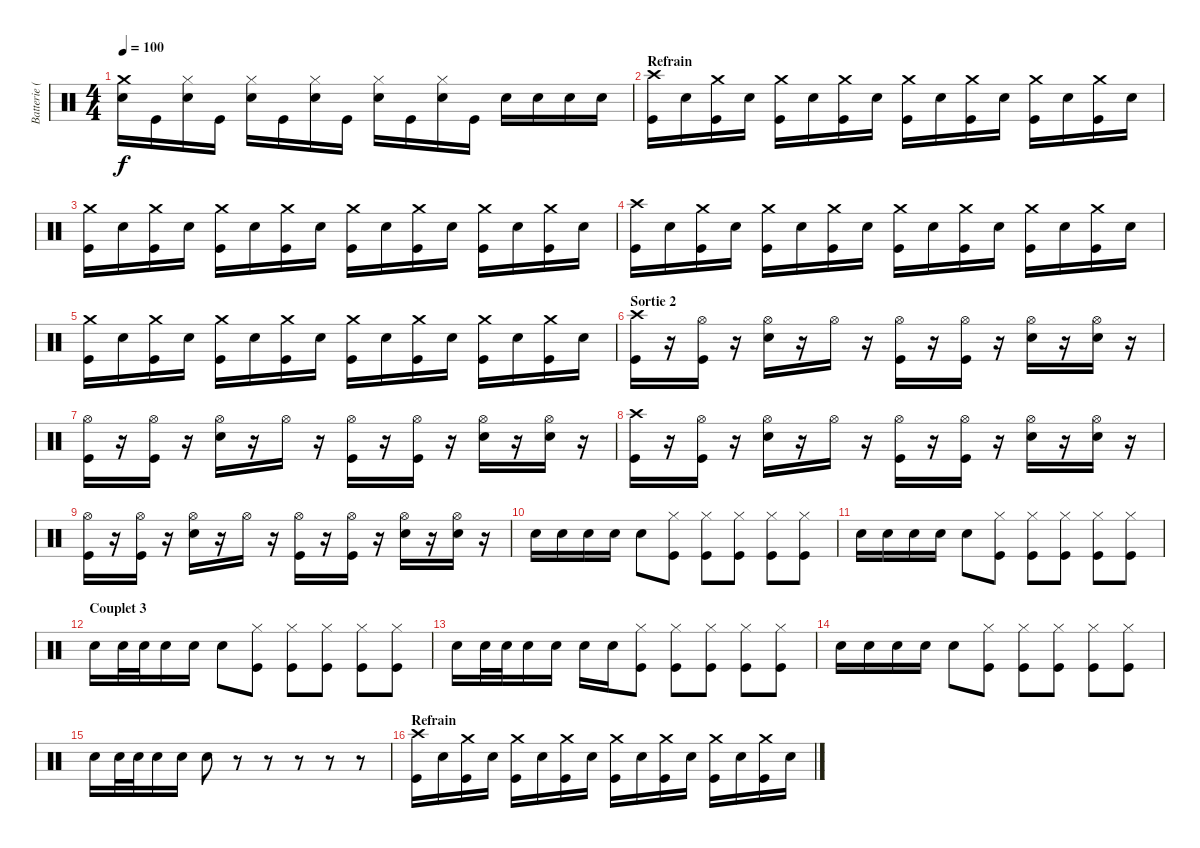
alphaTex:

\track ("Batterie (Julien)" "Batterie (") {instrument percussion}
\staff {score}
\articulation defaults
\ts (4 4)
\tempo 100
\clef neutral
\ks c
("Crash medium (hit)" "Electric Snare (hit)").16{dy f} "Kick (hit)".16 ("Hi-Hat (closed)" "Electric Snare (hit)").16 "Kick (hit)".16 ("Hi-Hat (closed)" "Electric Snare (hit)").16 "Kick (hit)".16 ("Hi-Hat (closed)" "Electric Snare (hit)").16 "Kick (hit)".16 ("Hi-Hat (closed)" "Electric Snare (hit)").16 "Kick (hit)".16 ("Hi-Hat (closed)" "Electric Snare (hit)").16 "Kick (hit)".16 "Electric Snare (hit)".16 "Electric Snare (hit)".16 "Electric Snare (hit)".16 "Electric Snare (hit)".16 |
\section ("" "Refrain")
("Crash high (hit)" "Kick (hit)").16 "Electric Snare (hit)".16 ("Crash medium (hit)" "Kick (hit)").16 "Electric Snare (hit)".16 ("Crash medium (hit)" "Kick (hit)").16 "Electric Snare (hit)".16 ("Crash medium (hit)" "Kick (hit)").16 "Electric Snare (hit)".16 ("Crash medium (hit)" "Kick (hit)").16 "Electric Snare (hit)".16 ("Crash medium (hit)" "Kick (hit)").16 "Electric Snare (hit)".16 ("Crash medium (hit)" "Kick (hit)").16 "Electric Snare (hit)".16 ("Crash medium (hit)" "Kick (hit)").16 "Electric Snare (hit)".16 |
("Crash medium (hit)" "Kick (hit)").16 "Electric Snare (hit)".16 ("Crash medium (hit)" "Kick (hit)").16 "Electric Snare (hit)".16 ("Crash medium (hit)" "Kick (hit)").16 "Electric Snare (hit)".16 ("Crash medium (hit)" "Kick (hit)").16 "Electric Snare (hit)".16 ("Crash medium (hit)" "Kick (hit)").16 "Electric Snare (hit)".16 ("Crash medium (hit)" "Kick (hit)").16 "Electric Snare (hit)".16 ("Crash medium (hit)" "Kick (hit)").16 "Electric Snare (hit)".16 ("Crash medium (hit)" "Kick (hit)").16 "Electric Snare (hit)".16 |
("Crash high (hit)" "Kick (hit)").16 "Electric Snare (hit)".16 ("Crash medium (hit)" "Kick (hit)").16 "Electric Snare (hit)".16 ("Crash medium (hit)" "Kick (hit)").16 "Electric Snare (hit)".16 ("Crash medium (hit)" "Kick (hit)").16 "Electric Snare (hit)".16 ("Crash medium (hit)" "Kick (hit)").16 "Electric Snare (hit)".16 ("Crash medium (hit)" "Kick (hit)").16 "Electric Snare (hit)".16 ("Crash medium (hit)" "Kick (hit)").16 "Electric Snare (hit)".16 ("Crash medium (hit)" "Kick (hit)").16 "Electric Snare (hit)".16 |
("Crash medium (hit)" "Kick (hit)").16 "Electric Snare (hit)".16 ("Crash medium (hit)" "Kick (hit)").16 "Electric Snare (hit)".16 ("Crash medium (hit)" "Kick (hit)").16 "Electric Snare (hit)".16 ("Crash medium (hit)" "Kick (hit)").16 "Electric Snare (hit)".16 ("Crash medium (hit)" "Kick (hit)").16 "Electric Snare (hit)".16 ("Crash medium (hit)" "Kick (hit)").16 "Electric Snare (hit)".16 ("Crash medium (hit)" "Kick (hit)").16 "Electric Snare (hit)".16 ("Crash medium (hit)" "Kick (hit)").16 "Electric Snare (hit)".16 |
\section ("" "Sortie 2")
("Crash high (hit)" "Kick (hit)").16 r.16 ("Hi-Hat (open)" "Kick (hit)").16 r.16 ("Hi-Hat (open)" "Electric Snare (hit)").16 r.16 "Hi-Hat (open)".16 r.16 ("Hi-Hat (open)" "Kick (hit)").16 r.16 ("Hi-Hat (open)" "Kick (hit)").16 r.16 ("Hi-Hat (open)" "Electric Snare (hit)").16 r.16 ("Hi-Hat (open)" "Electric Snare (hit)").16 r.16 |
("Hi-Hat (open)" "Kick (hit)").16 r.16 ("Hi-Hat (open)" "Kick (hit)").16 r.16 ("Hi-Hat (open)" "Electric Snare (hit)").16 r.16 "Hi-Hat (open)".16 r.16 ("Hi-Hat (open)" "Kick (hit)").16 r.16 ("Hi-Hat (open)" "Kick (hit)").16 r.16 ("Hi-Hat (open)" "Electric Snare (hit)").16 r.16 ("Hi-Hat (open)" "Electric Snare (hit)").16 r.16 |
("Crash high (hit)" "Kick (hit)").16 r.16 ("Hi-Hat (open)" "Kick (hit)").16 r.16 ("Hi-Hat (open)" "Electric Snare (hit)").16 r.16 "Hi-Hat (open)".16 r.16 ("Hi-Hat (open)" "Kick (hit)").16 r.16 ("Hi-Hat (open)" "Kick (hit)").16 r.16 ("Hi-Hat (open)" "Electric Snare (hit)").16 r.16 ("Hi-Hat (open)" "Electric Snare (hit)").16 r.16 |
("Hi-Hat (open)" "Kick (hit)").16 r.16 ("Hi-Hat (open)" "Kick (hit)").16 r.16 ("Hi-Hat (open)" "Electric Snare (hit)").16 r.16 "Hi-Hat (open)".16 r.16 ("Hi-Hat (open)" "Kick (hit)").16 r.16 ("Hi-Hat (open)" "Kick (hit)").16 r.16 ("Hi-Hat (open)" "Electric Snare (hit)").16 r.16 ("Hi-Hat (open)" "Electric Snare (hit)").16 r.16 |
"Electric Snare (hit)".16 "Electric Snare (hit)".16 "Electric Snare (hit)".16 "Electric Snare (hit)".16 "Electric Snare (hit)".8 ("Hi-Hat (closed)" "Kick (hit)").8 ("Hi-Hat (closed)" "Kick (hit)").8 ("Hi-Hat (closed)" "Kick (hit)").8 ("Hi-Hat (closed)" "Kick (hit)").8 ("Hi-Hat (closed)" "Kick (hit)").8 |
"Electric Snare (hit)".16 "Electric Snare (hit)".16 "Electric Snare (hit)".16 "Electric Snare (hit)".16 "Electric Snare (hit)".8 ("Hi-Hat (closed)" "Kick (hit)").8 ("Hi-Hat (closed)" "Kick (hit)").8 ("Hi-Hat (closed)" "Kick (hit)").8 ("Hi-Hat (closed)" "Kick (hit)").8 ("Hi-Hat (closed)" "Kick (hit)").8 |
\section ("" "Couplet 3")
"Electric Snare (hit)".16 "Electric Snare (hit)".32 "Electric Snare (hit)".32 "Electric Snare (hit)".16 "Electric Snare (hit)".16 "Electric Snare (hit)".8 ("Hi-Hat (closed)" "Kick (hit)").8 ("Hi-Hat (closed)" "Kick (hit)").8 ("Hi-Hat (closed)" "Kick (hit)").8 ("Hi-Hat (closed)" "Kick (hit)").8 ("Hi-Hat (closed)" "Kick (hit)").8 |
"Electric Snare (hit)".16 "Electric Snare (hit)".32 "Electric Snare (hit)".32 "Electric Snare (hit)".16 "Electric Snare (hit)".16 "Electric Snare (hit)".16 "Electric Snare (hit)".16 ("Hi-Hat (closed)" "Kick (hit)").8 ("Hi-Hat (closed)" "Kick (hit)").8 ("Hi-Hat (closed)" "Kick (hit)").8 ("Hi-Hat (closed)" "Kick (hit)").8 ("Hi-Hat (closed)" "Kick (hit)").8 |
"Electric Snare (hit)".16 "Electric Snare (hit)".16 "Electric Snare (hit)".16 "Electric Snare (hit)".16 "Electric Snare (hit)".8 ("Hi-Hat (closed)" "Kick (hit)").8 ("Hi-Hat (closed)" "Kick (hit)").8 ("Hi-Hat (closed)" "Kick (hit)").8 ("Hi-Hat (closed)" "Kick (hit)").8 ("Hi-Hat (closed)" "Kick (hit)").8 |
"Electric Snare (hit)".16 "Electric Snare (hit)".32 "Electric Snare (hit)".32 "Electric Snare (hit)".16 "Electric Snare (hit)".16 "Electric Snare (hit)".8 r.8 r.8 r.8 r.8 r.8 |
\section ("" "Refrain")
("Crash high (hit)" "Kick (hit)").16 "Electric Snare (hit)".16 ("Crash medium (hit)" "Kick (hit)").16 "Electric Snare (hit)".16 ("Crash medium (hit)" "Kick (hit)").16 "Electric Snare (hit)".16 ("Crash medium (hit)" "Kick (hit)").16 "Electric Snare (hit)".16 ("Crash medium (hit)" "Kick (hit)").16 "Electric Snare (hit)".16 ("Crash medium (hit)" "Kick (hit)").16 "Electric Snare (hit)".16 ("Crash medium (hit)" "Kick (hit)").16 "Electric Snare (hit)".16 ("Crash medium (hit)" "Kick (hit)").16 "Electric Snare (hit)".16
